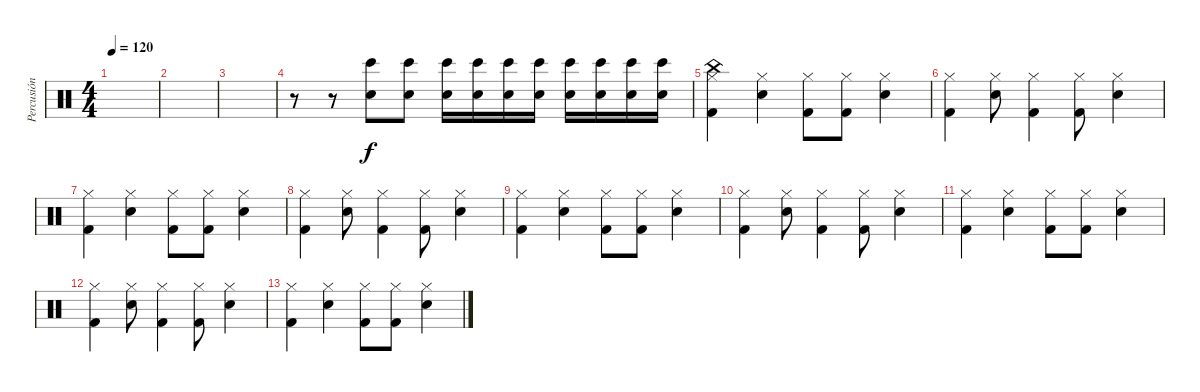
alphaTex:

\track ("Percusión" "Percusión") {instrument percussion}
\staff {score}
\articulation defaults
\ts (4 4)
\tempo 120
\clef neutral
\ks c
|
|
|
r.8 r.8 ("Bongo High (hit)" "Snare (hit) 2").8 ("Bongo High (hit)" "Snare (hit) 2").8 ("Bongo High (hit)" "Snare (hit) 2").16 ("Bongo High (hit)" "Snare (hit) 2").16 ("Bongo High (hit)" "Snare (hit) 2").16 ("Bongo High (hit)" "Snare (hit) 2").16 ("Bongo High (hit)" "Snare (hit) 2").16 ("Bongo High (hit)" "Snare (hit) 2").16 ("Bongo High (hit)" "Snare (hit) 2").16 ("Bongo High (hit)" "Snare (hit) 2").16 |
("Hi-Hat (closed)" "China (hit)" "Kick (hit) 2").4 ("Hi-Hat (closed)" "Snare (hit) 2").4 ("Hi-Hat (closed)" "Kick (hit) 2").8 ("Hi-Hat (closed)" "Kick (hit) 2").8 ("Hi-Hat (closed)" "Snare (hit) 2").4 |
("Hi-Hat (closed)" "Kick (hit) 2").4 ("Hi-Hat (closed)" "Snare (hit) 2").8 ("Hi-Hat (closed)" "Kick (hit) 2").4 ("Hi-Hat (closed)" "Kick (hit) 2").8 ("Hi-Hat (closed)" "Snare (hit) 2").4 |
("Hi-Hat (closed)" "Kick (hit) 2").4 ("Hi-Hat (closed)" "Snare (hit) 2").4 ("Hi-Hat (closed)" "Kick (hit) 2").8 ("Hi-Hat (closed)" "Kick (hit) 2").8 ("Hi-Hat (closed)" "Snare (hit) 2").4 |
("Hi-Hat (closed)" "Kick (hit) 2").4 ("Hi-Hat (closed)" "Snare (hit) 2").8 ("Hi-Hat (closed)" "Kick (hit) 2").4 ("Hi-Hat (closed)" "Kick (hit) 2").8 ("Hi-Hat (closed)" "Snare (hit) 2").4 |
("Hi-Hat (closed)" "Kick (hit) 2").4 ("Hi-Hat (closed)" "Snare (hit) 2").4 ("Hi-Hat (closed)" "Kick (hit) 2").8 ("Hi-Hat (closed)" "Kick (hit) 2").8 ("Hi-Hat (closed)" "Snare (hit) 2").4 |
("Hi-Hat (closed)" "Kick (hit) 2").4 ("Hi-Hat (closed)" "Snare (hit) 2").8 ("Hi-Hat (closed)" "Kick (hit) 2").4 ("Hi-Hat (closed)" "Kick (hit) 2").8 ("Hi-Hat (closed)" "Snare (hit) 2").4 |
("Hi-Hat (closed)" "Kick (hit) 2").4 ("Hi-Hat (closed)" "Snare (hit) 2").4 ("Hi-Hat (closed)" "Kick (hit) 2").8 ("Hi-Hat (closed)" "Kick (hit) 2").8 ("Hi-Hat (closed)" "Snare (hit) 2").4 |
("Hi-Hat (closed)" "Kick (hit) 2").4 ("Hi-Hat (closed)" "Snare (hit) 2").8 ("Hi-Hat (closed)" "Kick (hit) 2").4 ("Hi-Hat (closed)" "Kick (hit) 2").8 ("Hi-Hat (closed)" "Snare (hit) 2").4 |
("Hi-Hat (closed)" "Kick (hit) 2").4 ("Hi-Hat (closed)" "Snare (hit) 2").4 ("Hi-Hat (closed)" "Kick (hit) 2").8 ("Hi-Hat (closed)" "Kick (hit) 2").8 ("Hi-Hat (closed)" "Snare (hit) 2").4
